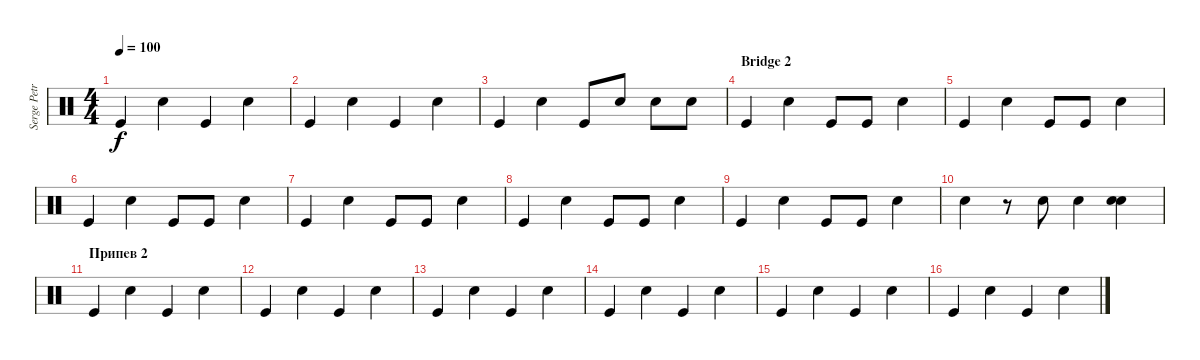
\track ("Serge Petrone" "Serge Petr") {instrument percussion}
\staff {score}
\articulation defaults
\ts (4 4)
\tempo 100
\clef neutral
\ks c "Kick (hit)".4{dy f} "Snare (hit) 2".4 "Kick (hit)".4 "Snare (hit) 2".4
|
"Kick (hit)".4 "Snare (hit) 2".4 "Kick (hit)".4 "Snare (hit) 2".4 |
"Kick (hit)".4 "Snare (hit) 2".4 "Kick (hit)".8 "Snare (hit) 2".8 "Snare (hit) 2".8 "Snare (hit) 2".8 |
\section ("" "Bridge 2")
"Kick (hit)".4 "Snare (hit) 2".4 "Kick (hit)".8 "Kick (hit)".8 "Snare (hit) 2".4 |
"Kick (hit)".4 "Snare (hit) 2".4 "Kick (hit)".8 "Kick (hit)".8 "Snare (hit) 2".4 |
"Kick (hit)".4 "Snare (hit) 2".4 "Kick (hit)".8 "Kick (hit)".8 "Snare (hit) 2".4 |
"Kick (hit)".4 "Snare (hit) 2".4 "Kick (hit)".8 "Kick (hit)".8 "Snare (hit) 2".4 |
"Kick (hit)".4 "Snare (hit) 2".4 "Kick (hit)".8 "Kick (hit)".8 "Snare (hit) 2".4 |
"Kick (hit)".4 "Snare (hit) 2".4 "Kick (hit)".8 "Kick (hit)".8 "Snare (hit) 2".4 |
"Snare (hit) 2".4 r.8 "Snare (hit) 2".8{volume 16} "Snare (hit) 2".4 ("Snare (hit) 2" "Electric Snare (hit)").4 |
\section ("" "Припев 2")
"Kick (hit)".4{volume 16} "Snare (hit) 2".4 "Kick (hit)".4 "Snare (hit) 2".4 |
"Kick (hit)".4 "Snare (hit) 2".4 "Kick (hit)".4 "Snare (hit) 2".4 |
"Kick (hit)".4 "Snare (hit) 2".4 "Kick (hit)".4 "Snare (hit) 2".4 |
"Kick (hit)".4 "Snare (hit) 2".4 "Kick (hit)".4 "Snare (hit) 2".4 |
"Kick (hit)".4 "Snare (hit) 2".4 "Kick (hit)".4 "Snare (hit) 2".4 |
"Kick (hit)".4 "Snare (hit) 2".4 "Kick (hit)".4 "Snare (hit) 2".4
